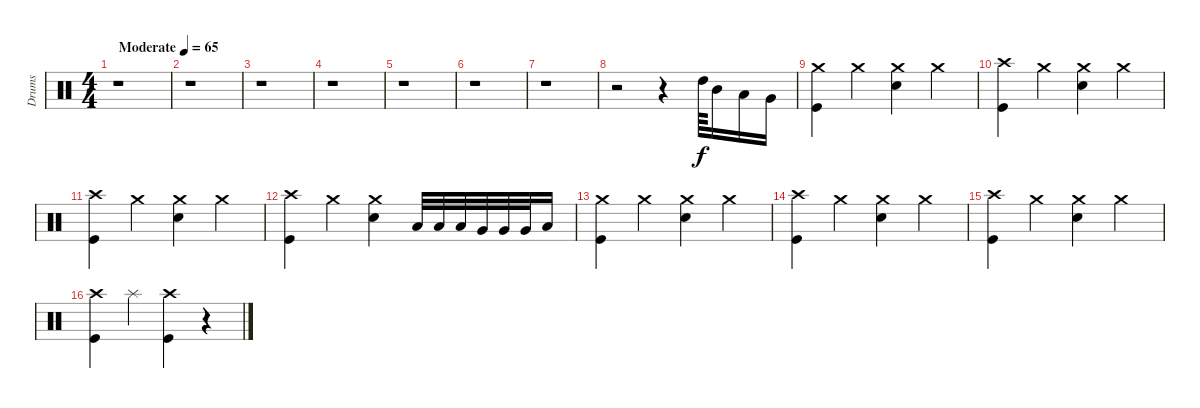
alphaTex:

\track ("Drums" "Drums") {instrument percussion}
\staff {score}
\articulation defaults
\ts (4 4)
\tempo (65 "Moderate")
\clef neutral
\ks c
r.1{dy f} |
r.1 |
r.1 |
r.1 |
r.1 |
r.1 |
r.1 |
r.2 r.4 "High Tom (hit)".64 "Mid Tom (hit)".16 "Low Tom (hit)".16 "Very Low Tom (hit)".16 |
("Crash medium (hit)" "Kick (hit)").4 "Crash medium (hit)".4 ("Crash medium (hit)" "Snare (hit) 2").4 "Crash medium (hit)".4 |
("Crash high (hit)" "Kick (hit)").4 "Crash medium (hit)".4 ("Crash medium (hit)" "Snare (hit) 2").4 "Crash medium (hit)".4 |
("Crash high (hit)" "Kick (hit)").4 "Crash medium (hit)".4 ("Crash medium (hit)" "Snare (hit) 2").4 "Crash medium (hit)".4 |
("Crash high (hit)" "Kick (hit)").4 "Crash medium (hit)".4 ("Crash medium (hit)" "Snare (hit) 2").4 "Low Tom (hit)".32 "Low Tom (hit)".32 "Low Tom (hit)".32 "Very Low Tom (hit)".32 "Very Low Tom (hit)".32 "Very Low Tom (hit)".32 "Low Floor Tom (hit)".16 |
("Crash medium (hit)" "Kick (hit)").4 "Crash medium (hit)".4 ("Crash medium (hit)" "Snare (hit) 2").4 "Crash medium (hit)".4 |
("Crash high (hit)" "Kick (hit)").4 "Crash medium (hit)".4 ("Crash medium (hit)" "Snare (hit) 2").4 "Crash medium (hit)".4 |
("Crash high (hit)" "Kick (hit)").4 "Crash medium (hit)".4 ("Crash medium (hit)" "Snare (hit) 2").4 "Crash medium (hit)".4 |
("Crash high (hit)" "Kick (hit)").4 "Splash (hit)".4 ("Crash high (hit)" "Kick (hit)").4 r.4
